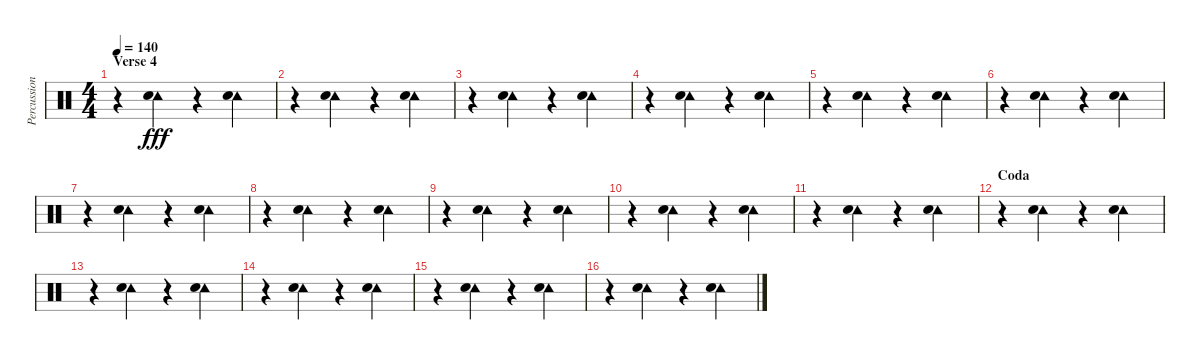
\track ("Percussion" "Percussion") {instrument percussion}
\staff {score}
\articulation defaults
\ts (4 4)
\section ("" "Verse 4")
\tempo 140
\clef neutral
\ks c
r.4{dy fff} ("Tambourine (hit)" "Hand Clap (hit)").4 r.4 ("Tambourine (hit)" "Hand Clap (hit)").4 |
r.4 ("Tambourine (hit)" "Hand Clap (hit)").4 r.4 ("Tambourine (hit)" "Hand Clap (hit)").4 |
r.4 ("Tambourine (hit)" "Hand Clap (hit)").4 r.4 ("Tambourine (hit)" "Hand Clap (hit)").4 |
r.4 ("Tambourine (hit)" "Hand Clap (hit)").4 r.4 ("Tambourine (hit)" "Hand Clap (hit)").4 |
r.4 ("Tambourine (hit)" "Hand Clap (hit)").4 r.4 ("Tambourine (hit)" "Hand Clap (hit)").4 |
r.4 ("Tambourine (hit)" "Hand Clap (hit)").4 r.4 ("Tambourine (hit)" "Hand Clap (hit)").4 |
r.4 ("Tambourine (hit)" "Hand Clap (hit)").4 r.4 ("Tambourine (hit)" "Hand Clap (hit)").4 |
r.4 ("Tambourine (hit)" "Hand Clap (hit)").4 r.4 ("Tambourine (hit)" "Hand Clap (hit)").4 |
r.4 ("Tambourine (hit)" "Hand Clap (hit)").4 r.4 ("Tambourine (hit)" "Hand Clap (hit)").4 |
r.4 ("Tambourine (hit)" "Hand Clap (hit)").4 r.4 ("Tambourine (hit)" "Hand Clap (hit)").4 |
r.4 ("Tambourine (hit)" "Hand Clap (hit)").4 r.4 ("Tambourine (hit)" "Hand Clap (hit)").4 |
\section ("" "Coda")
r.4 ("Tambourine (hit)" "Hand Clap (hit)").4 r.4 ("Tambourine (hit)" "Hand Clap (hit)").4 |
r.4 ("Tambourine (hit)" "Hand Clap (hit)").4 r.4 ("Tambourine (hit)" "Hand Clap (hit)").4 |
r.4 ("Tambourine (hit)" "Hand Clap (hit)").4 r.4 ("Tambourine (hit)" "Hand Clap (hit)").4 |
r.4 ("Tambourine (hit)" "Hand Clap (hit)").4 r.4 ("Tambourine (hit)" "Hand Clap (hit)").4 |
r.4 ("Tambourine (hit)" "Hand Clap (hit)").4 r.4 ("Tambourine (hit)" "Hand Clap (hit)").4
